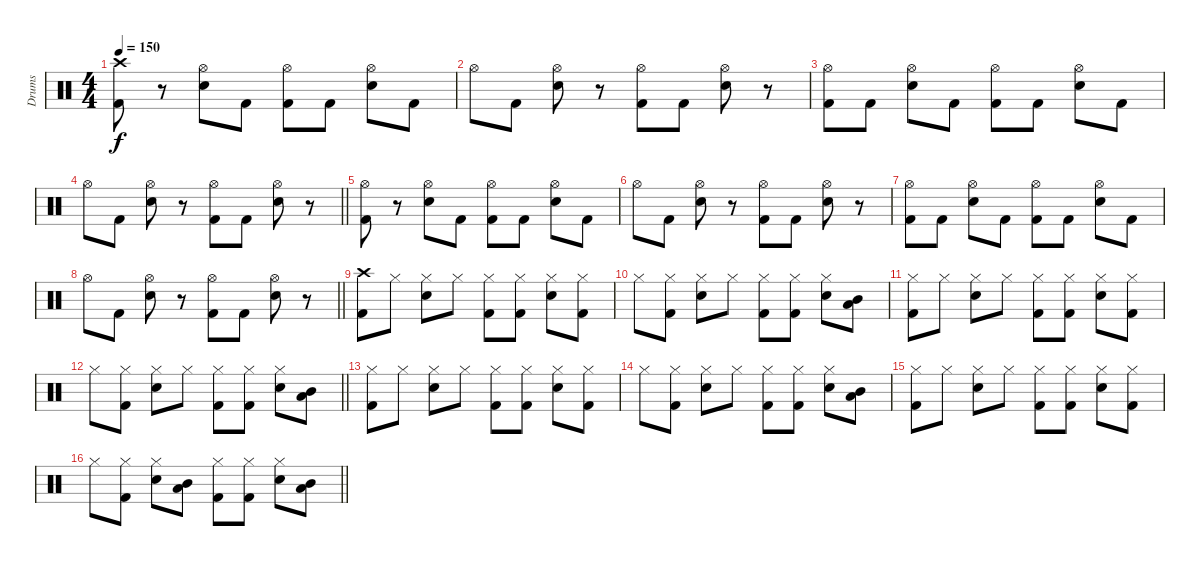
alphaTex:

\track ("Drums" "Drums") {instrument percussion}
\staff {score}
\articulation defaults
\ts (4 4)
\tempo 150
\clef neutral
\ks c
("Crash high (hit)" "Kick (hit) 2").8{dy f} r.8 ("Hi-Hat (open)" "Snare (hit) 2").8 "Kick (hit) 2".8 ("Hi-Hat (open)" "Kick (hit) 2").8 "Kick (hit) 2".8 ("Hi-Hat (open)" "Snare (hit) 2").8 "Kick (hit) 2".8 |
"Hi-Hat (open)".8 "Kick (hit) 2".8 ("Hi-Hat (open)" "Snare (hit) 2").8 r.8 ("Hi-Hat (open)" "Kick (hit) 2").8 "Kick (hit) 2".8 ("Hi-Hat (open)" "Snare (hit) 2").8 r.8 |
("Hi-Hat (open)" "Kick (hit) 2").8 "Kick (hit) 2".8 ("Hi-Hat (open)" "Snare (hit) 2").8 "Kick (hit) 2".8 ("Hi-Hat (open)" "Kick (hit) 2").8 "Kick (hit) 2".8 ("Hi-Hat (open)" "Snare (hit) 2").8 "Kick (hit) 2".8 |
\barLineRight lightlight "Hi-Hat (open)".8 "Kick (hit) 2".8
("Hi-Hat (open)" "Snare (hit) 2").8 r.8 ("Hi-Hat (open)" "Kick (hit) 2").8 "Kick (hit) 2".8 ("Hi-Hat (open)" "Snare (hit) 2").8 r.8 |
("Hi-Hat (open)" "Kick (hit) 2").8 r.8 ("Hi-Hat (open)" "Snare (hit) 2").8 "Kick (hit) 2".8 ("Hi-Hat (open)" "Kick (hit) 2").8 "Kick (hit) 2".8 ("Hi-Hat (open)" "Snare (hit) 2").8 "Kick (hit) 2".8 |
"Hi-Hat (open)".8 "Kick (hit) 2".8 ("Hi-Hat (open)" "Snare (hit) 2").8 r.8 ("Hi-Hat (open)" "Kick (hit) 2").8 "Kick (hit) 2".8 ("Hi-Hat (open)" "Snare (hit) 2").8 r.8 |
("Hi-Hat (open)" "Kick (hit) 2").8 "Kick (hit) 2".8 ("Hi-Hat (open)" "Snare (hit) 2").8 "Kick (hit) 2".8 ("Hi-Hat (open)" "Kick (hit) 2").8 "Kick (hit) 2".8 ("Hi-Hat (open)" "Snare (hit) 2").8 "Kick (hit) 2".8 |
\barLineRight lightlight "Hi-Hat (open)".8 "Kick (hit) 2".8
("Hi-Hat (open)" "Snare (hit) 2").8 r.8 ("Hi-Hat (open)" "Kick (hit) 2").8 "Kick (hit) 2".8 ("Hi-Hat (open)" "Snare (hit) 2").8 r.8 |
("Crash high (hit)" "Kick (hit) 2").8 "Hi-Hat (closed)".8 ("Hi-Hat (closed)" "Snare (hit) 2").8 "Hi-Hat (closed)".8 ("Hi-Hat (closed)" "Kick (hit) 2").8 ("Hi-Hat (closed)" "Kick (hit) 2").8 ("Hi-Hat (closed)" "Snare (hit) 2").8 ("Hi-Hat (closed)" "Kick (hit) 2").8 |
"Hi-Hat (closed)".8 ("Hi-Hat (closed)" "Kick (hit) 2").8 ("Hi-Hat (closed)" "Snare (hit) 2").8 "Hi-Hat (closed)".8 ("Hi-Hat (closed)" "Kick (hit) 2").8 ("Hi-Hat (closed)" "Kick (hit) 2").8 ("Hi-Hat (closed)" "Snare (hit) 2").8 ("Mid Tom (hit)" "Low Tom (hit)").8 |
("Hi-Hat (closed)" "Kick (hit) 2").8 "Hi-Hat (closed)".8 ("Hi-Hat (closed)" "Snare (hit) 2").8 "Hi-Hat (closed)".8 ("Hi-Hat (closed)" "Kick (hit) 2").8 ("Hi-Hat (closed)" "Kick (hit) 2").8 ("Hi-Hat (closed)" "Snare (hit) 2").8 ("Hi-Hat (closed)" "Kick (hit) 2").8 |
\barLineRight lightlight "Hi-Hat (closed)".8
("Hi-Hat (closed)" "Kick (hit) 2").8 ("Hi-Hat (closed)" "Snare (hit) 2").8 "Hi-Hat (closed)".8 ("Hi-Hat (closed)" "Kick (hit) 2").8 ("Hi-Hat (closed)" "Kick (hit) 2").8 ("Hi-Hat (closed)" "Snare (hit) 2").8 ("Mid Tom (hit)" "Low Tom (hit)").8 |
("Hi-Hat (closed)" "Kick (hit) 2").8 "Hi-Hat (closed)".8 ("Hi-Hat (closed)" "Snare (hit) 2").8 "Hi-Hat (closed)".8 ("Hi-Hat (closed)" "Kick (hit) 2").8 ("Hi-Hat (closed)" "Kick (hit) 2").8 ("Hi-Hat (closed)" "Snare (hit) 2").8 ("Hi-Hat (closed)" "Kick (hit) 2").8 |
"Hi-Hat (closed)".8 ("Hi-Hat (closed)" "Kick (hit) 2").8 ("Hi-Hat (closed)" "Snare (hit) 2").8 "Hi-Hat (closed)".8 ("Hi-Hat (closed)" "Kick (hit) 2").8 ("Hi-Hat (closed)" "Kick (hit) 2").8 ("Hi-Hat (closed)" "Snare (hit) 2").8 ("Mid Tom (hit)" "Low Tom (hit)").8 |
("Hi-Hat (closed)" "Kick (hit) 2").8 "Hi-Hat (closed)".8 ("Hi-Hat (closed)" "Snare (hit) 2").8 "Hi-Hat (closed)".8 ("Hi-Hat (closed)" "Kick (hit) 2").8 ("Hi-Hat (closed)" "Kick (hit) 2").8 ("Hi-Hat (closed)" "Snare (hit) 2").8 ("Hi-Hat (closed)" "Kick (hit) 2").8 |
\barLineRight lightlight "Hi-Hat (closed)".8
("Hi-Hat (closed)" "Kick (hit) 2").8 ("Hi-Hat (closed)" "Snare (hit) 2").8 ("Mid Tom (hit)" "Low Tom (hit)").8 ("Hi-Hat (closed)" "Kick (hit) 2").8 ("Hi-Hat (closed)" "Kick (hit) 2").8 ("Hi-Hat (closed)" "Snare (hit) 2").8 ("Mid Tom (hit)" "Low Tom (hit)").8
